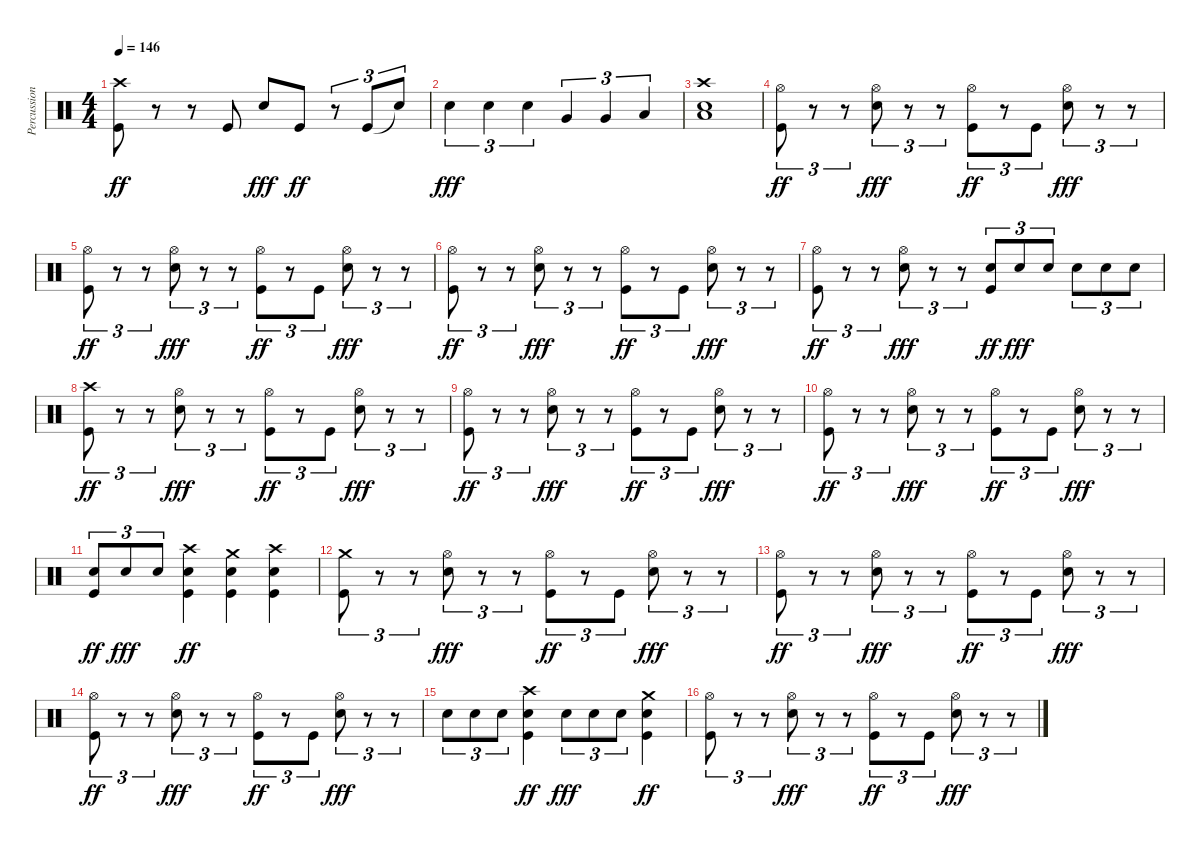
\track ("Percussion" "Percussion") {instrument percussion}
\staff {score}
\articulation defaults
\ts (4 4)
\tempo 146
\clef neutral
\ks c
("Crash high (hit)" "Kick (hit)").8{dy ff} r.8 r.8 "Kick (hit)".8 "Snare (hit) 2".8{dy fff} "Kick (hit)".8{dy ff} r.8{tu (3 2)} "Kick (hit)".8{tu (3 2)} "Snare (hit)"{t}.8{tu (3 2)} |
"Snare (hit) 2".4{tu (3 2) dy fff} "Snare (hit) 2".4{tu (3 2)} "Snare (hit) 2".4{tu (3 2)} "Very Low Tom (hit)".4{tu (3 2)} "Very Low Tom (hit)".4{tu (3 2)} "Low Floor Tom (hit)".4{tu (3 2)} |
("Crash high (hit)" "Low Floor Tom (hit)" "Snare (hit) 2").1 |
("Hi-Hat (open)" "Kick (hit)").8{tu (3 2) dy ff} r.8{tu (3 2)} r.8{tu (3 2)} ("Hi-Hat (open)" "Snare (hit) 2").8{tu (3 2) dy fff} r.8{tu (3 2)} r.8{tu (3 2)} ("Hi-Hat (open)" "Kick (hit)").8{tu (3 2) dy ff} r.8{tu (3 2)} "Kick (hit)".8{tu (3 2)} ("Hi-Hat (open)" "Snare (hit) 2").8{tu (3 2) dy fff} r.8{tu (3 2)} r.8{tu (3 2)} |
("Hi-Hat (open)" "Kick (hit)").8{tu (3 2) dy ff} r.8{tu (3 2)} r.8{tu (3 2)} ("Hi-Hat (open)" "Snare (hit) 2").8{tu (3 2) dy fff} r.8{tu (3 2)} r.8{tu (3 2)} ("Hi-Hat (open)" "Kick (hit)").8{tu (3 2) dy ff} r.8{tu (3 2)} "Kick (hit)".8{tu (3 2)} ("Hi-Hat (open)" "Snare (hit) 2").8{tu (3 2) dy fff} r.8{tu (3 2)} r.8{tu (3 2)} |
("Hi-Hat (open)" "Kick (hit)").8{tu (3 2) dy ff} r.8{tu (3 2)} r.8{tu (3 2)} ("Hi-Hat (open)" "Snare (hit) 2").8{tu (3 2) dy fff} r.8{tu (3 2)} r.8{tu (3 2)} ("Hi-Hat (open)" "Kick (hit)").8{tu (3 2) dy ff} r.8{tu (3 2)} "Kick (hit)".8{tu (3 2)} ("Hi-Hat (open)" "Snare (hit) 2").8{tu (3 2) dy fff} r.8{tu (3 2)} r.8{tu (3 2)} |
("Hi-Hat (open)" "Kick (hit)").8{tu (3 2) dy ff} r.8{tu (3 2)} r.8{tu (3 2)} ("Hi-Hat (open)" "Snare (hit) 2").8{tu (3 2) dy fff} r.8{tu (3 2)} r.8{tu (3 2)} ("Snare (hit) 2" "Kick (hit)").8{tu (3 2) dy ff} "Snare (hit) 2".8{tu (3 2) dy fff} "Snare (hit) 2".8{tu (3 2)} "Snare (hit) 2".8{tu (3 2)} "Snare (hit) 2".8{tu (3 2)} "Snare (hit) 2".8{tu (3 2)} |
("Crash high (hit)" "Kick (hit)").8{tu (3 2) dy ff} r.8{tu (3 2)} r.8{tu (3 2)} ("Hi-Hat (open)" "Snare (hit) 2").8{tu (3 2) dy fff} r.8{tu (3 2)} r.8{tu (3 2)} ("Hi-Hat (open)" "Kick (hit)").8{tu (3 2) dy ff} r.8{tu (3 2)} "Kick (hit)".8{tu (3 2)} ("Hi-Hat (open)" "Snare (hit) 2").8{tu (3 2) dy fff} r.8{tu (3 2)} r.8{tu (3 2)} |
("Hi-Hat (open)" "Kick (hit)").8{tu (3 2) dy ff} r.8{tu (3 2)} r.8{tu (3 2)} ("Hi-Hat (open)" "Snare (hit) 2").8{tu (3 2) dy fff} r.8{tu (3 2)} r.8{tu (3 2)} ("Hi-Hat (open)" "Kick (hit)").8{tu (3 2) dy ff} r.8{tu (3 2)} "Kick (hit)".8{tu (3 2)} ("Hi-Hat (open)" "Snare (hit) 2").8{tu (3 2) dy fff} r.8{tu (3 2)} r.8{tu (3 2)} |
("Hi-Hat (open)" "Kick (hit)").8{tu (3 2) dy ff} r.8{tu (3 2)} r.8{tu (3 2)} ("Hi-Hat (open)" "Snare (hit) 2").8{tu (3 2) dy fff} r.8{tu (3 2)} r.8{tu (3 2)} ("Hi-Hat (open)" "Kick (hit)").8{tu (3 2) dy ff} r.8{tu (3 2)} "Kick (hit)".8{tu (3 2)} ("Hi-Hat (open)" "Snare (hit) 2").8{tu (3 2) dy fff} r.8{tu (3 2)} r.8{tu (3 2)} |
("Snare (hit) 2" "Kick (hit)").8{tu (3 2) dy ff} "Snare (hit) 2".8{tu (3 2) dy fff} "Snare (hit) 2".8{tu (3 2)} ("Crash high (hit)" "Snare (hit) 2" "Kick (hit)").4{dy ff} ("Crash medium (hit)" "Snare (hit) 2" "Kick (hit)").4 ("Crash high (hit)" "Snare (hit) 2" "Kick (hit)").4 |
("Crash medium (hit)" "Kick (hit)").8{tu (3 2)} r.8{tu (3 2)} r.8{tu (3 2)} ("Hi-Hat (open)" "Snare (hit) 2").8{tu (3 2) dy fff} r.8{tu (3 2)} r.8{tu (3 2)} ("Hi-Hat (open)" "Kick (hit)").8{tu (3 2) dy ff} r.8{tu (3 2)} "Kick (hit)".8{tu (3 2)} ("Hi-Hat (open)" "Snare (hit) 2").8{tu (3 2) dy fff} r.8{tu (3 2)} r.8{tu (3 2)} |
("Hi-Hat (open)" "Kick (hit)").8{tu (3 2) dy ff} r.8{tu (3 2)} r.8{tu (3 2)} ("Hi-Hat (open)" "Snare (hit) 2").8{tu (3 2) dy fff} r.8{tu (3 2)} r.8{tu (3 2)} ("Hi-Hat (open)" "Kick (hit)").8{tu (3 2) dy ff} r.8{tu (3 2)} "Kick (hit)".8{tu (3 2)} ("Hi-Hat (open)" "Snare (hit) 2").8{tu (3 2) dy fff} r.8{tu (3 2)} r.8{tu (3 2)} |
("Hi-Hat (open)" "Kick (hit)").8{tu (3 2) dy ff} r.8{tu (3 2)} r.8{tu (3 2)} ("Hi-Hat (open)" "Snare (hit) 2").8{tu (3 2) dy fff} r.8{tu (3 2)} r.8{tu (3 2)} ("Hi-Hat (open)" "Kick (hit)").8{tu (3 2) dy ff} r.8{tu (3 2)} "Kick (hit)".8{tu (3 2)} ("Hi-Hat (open)" "Snare (hit) 2").8{tu (3 2) dy fff} r.8{tu (3 2)} r.8{tu (3 2)} |
"Snare (hit) 2".8{tu (3 2)} "Snare (hit) 2".8{tu (3 2)} "Snare (hit) 2".8{tu (3 2)} ("Crash high (hit)" "Snare (hit) 2" "Kick (hit)").4{dy ff} "Snare (hit) 2".8{tu (3 2) dy fff} "Snare (hit) 2".8{tu (3 2)} "Snare (hit) 2".8{tu (3 2)} ("Crash medium (hit)" "Snare (hit) 2" "Kick (hit)").4{dy ff} |
("Hi-Hat (open)" "Kick (hit)").8{tu (3 2)} r.8{tu (3 2)} r.8{tu (3 2)} ("Hi-Hat (open)" "Snare (hit) 2").8{tu (3 2) dy fff} r.8{tu (3 2)} r.8{tu (3 2)} ("Hi-Hat (open)" "Kick (hit)").8{tu (3 2) dy ff} r.8{tu (3 2)} "Kick (hit)".8{tu (3 2)} ("Hi-Hat (open)" "Snare (hit) 2").8{tu (3 2) dy fff} r.8{tu (3 2)} r.8{tu (3 2)}
